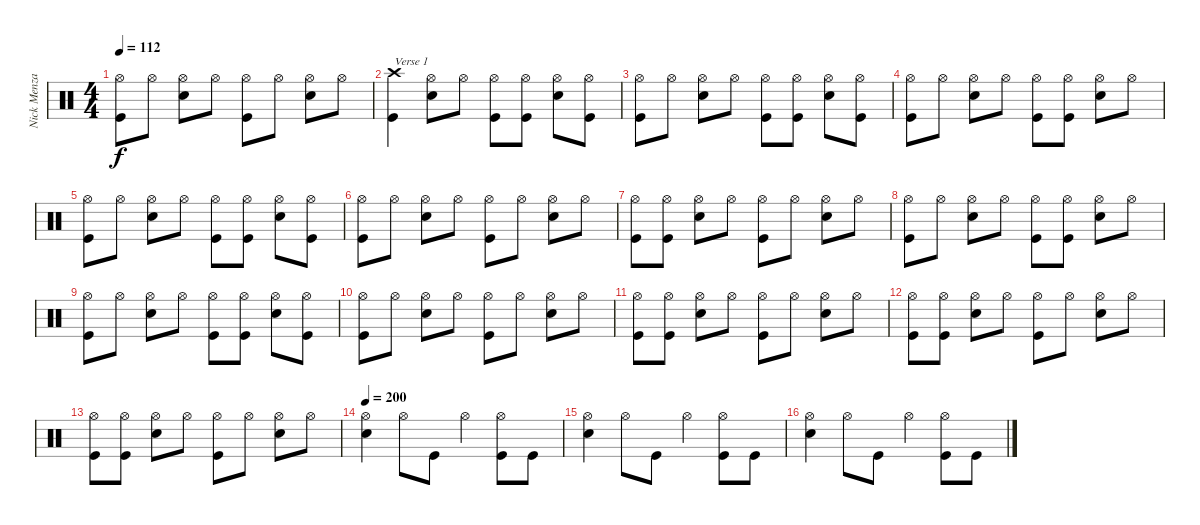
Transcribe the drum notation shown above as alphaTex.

\track ("Nick Menza" "Nick Menza") {instrument percussion}
\staff {score}
\articulation defaults
\ts (4 4)
\tempo 112
\clef neutral
\ks c
("Hi-Hat (open)" "Kick (hit)").8{dy f} "Hi-Hat (open)".8 ("Hi-Hat (open)" "Snare (hit) 2").8 "Hi-Hat (open)".8 ("Hi-Hat (open)" "Kick (hit)").8 "Hi-Hat (open)".8 ("Hi-Hat (open)" "Snare (hit) 2").8 "Hi-Hat (open)".8 |
("Crash high (hit)" "Kick (hit)").4{txt "Verse 1"} ("Hi-Hat (open)" "Snare (hit) 2").8 "Hi-Hat (open)".8 ("Hi-Hat (open)" "Kick (hit)").8 ("Hi-Hat (open)" "Kick (hit)").8 ("Hi-Hat (open)" "Snare (hit) 2").8 ("Hi-Hat (open)" "Kick (hit)").8 |
("Hi-Hat (open)" "Kick (hit)").8 "Hi-Hat (open)".8 ("Hi-Hat (open)" "Snare (hit) 2").8 "Hi-Hat (open)".8 ("Hi-Hat (open)" "Kick (hit)").8 ("Hi-Hat (open)" "Kick (hit)").8 ("Hi-Hat (open)" "Snare (hit) 2").8 ("Hi-Hat (open)" "Kick (hit)").8 |
("Hi-Hat (open)" "Kick (hit)").8 "Hi-Hat (open)".8 ("Hi-Hat (open)" "Snare (hit) 2").8 "Hi-Hat (open)".8 ("Hi-Hat (open)" "Kick (hit)").8 ("Hi-Hat (open)" "Kick (hit)").8 ("Hi-Hat (open)" "Snare (hit) 2").8 "Hi-Hat (open)".8 |
("Hi-Hat (open)" "Kick (hit)").8 "Hi-Hat (open)".8 ("Hi-Hat (open)" "Snare (hit) 2").8 "Hi-Hat (open)".8 ("Hi-Hat (open)" "Kick (hit)").8 ("Hi-Hat (open)" "Kick (hit)").8 ("Hi-Hat (open)" "Snare (hit) 2").8 ("Hi-Hat (open)" "Kick (hit)").8 |
("Hi-Hat (open)" "Kick (hit)").8 "Hi-Hat (open)".8 ("Hi-Hat (open)" "Snare (hit) 2").8 "Hi-Hat (open)".8 ("Hi-Hat (open)" "Kick (hit)").8 "Hi-Hat (open)".8 ("Hi-Hat (open)" "Snare (hit) 2").8 "Hi-Hat (open)".8 |
("Hi-Hat (open)" "Kick (hit)").8 ("Hi-Hat (open)" "Kick (hit)").8 ("Hi-Hat (open)" "Snare (hit) 2").8 "Hi-Hat (open)".8 ("Hi-Hat (open)" "Kick (hit)").8 "Hi-Hat (open)".8 ("Hi-Hat (open)" "Snare (hit) 2").8 "Hi-Hat (open)".8 |
("Hi-Hat (open)" "Kick (hit)").8 "Hi-Hat (open)".8 ("Hi-Hat (open)" "Snare (hit) 2").8 "Hi-Hat (open)".8 ("Hi-Hat (open)" "Kick (hit)").8 ("Hi-Hat (open)" "Kick (hit)").8 ("Hi-Hat (open)" "Snare (hit) 2").8 "Hi-Hat (open)".8 |
("Hi-Hat (open)" "Kick (hit)").8 "Hi-Hat (open)".8 ("Hi-Hat (open)" "Snare (hit) 2").8 "Hi-Hat (open)".8 ("Hi-Hat (open)" "Kick (hit)").8 ("Hi-Hat (open)" "Kick (hit)").8 ("Hi-Hat (open)" "Snare (hit) 2").8 ("Hi-Hat (open)" "Kick (hit)").8 |
("Hi-Hat (open)" "Kick (hit)").8 "Hi-Hat (open)".8 ("Hi-Hat (open)" "Snare (hit) 2").8 "Hi-Hat (open)".8 ("Hi-Hat (open)" "Kick (hit)").8 "Hi-Hat (open)".8 ("Hi-Hat (open)" "Snare (hit) 2").8 "Hi-Hat (open)".8 |
("Hi-Hat (open)" "Kick (hit)").8 ("Hi-Hat (open)" "Kick (hit)").8 ("Hi-Hat (open)" "Snare (hit) 2").8 "Hi-Hat (open)".8 ("Hi-Hat (open)" "Kick (hit)").8 "Hi-Hat (open)".8 ("Hi-Hat (open)" "Snare (hit) 2").8 "Hi-Hat (open)".8 |
("Hi-Hat (open)" "Kick (hit)").8 ("Hi-Hat (open)" "Kick (hit)").8 ("Hi-Hat (open)" "Snare (hit) 2").8 "Hi-Hat (open)".8 ("Hi-Hat (open)" "Kick (hit)").8 "Hi-Hat (open)".8 ("Hi-Hat (open)" "Snare (hit) 2").8 "Hi-Hat (open)".8 |
("Hi-Hat (open)" "Kick (hit)").8 ("Hi-Hat (open)" "Kick (hit)").8 ("Hi-Hat (open)" "Snare (hit) 2").8 "Hi-Hat (open)".8 ("Hi-Hat (open)" "Kick (hit)").8 "Hi-Hat (open)".8 ("Hi-Hat (open)" "Snare (hit) 2").8 "Hi-Hat (open)".8 |
\tempo 200
("Hi-Hat (open)" "Snare (hit) 2").4 "Hi-Hat (open)".8 "Kick (hit)".8 "Hi-Hat (open)".4 ("Hi-Hat (open)" "Kick (hit)").8 "Kick (hit)".8 |
("Hi-Hat (open)" "Snare (hit) 2").4 "Hi-Hat (open)".8 "Kick (hit)".8 "Hi-Hat (open)".4 ("Hi-Hat (open)" "Kick (hit)").8 "Kick (hit)".8 |
("Hi-Hat (open)" "Snare (hit) 2").4 "Hi-Hat (open)".8 "Kick (hit)".8 "Hi-Hat (open)".4 ("Hi-Hat (open)" "Kick (hit)").8 "Kick (hit)".8
